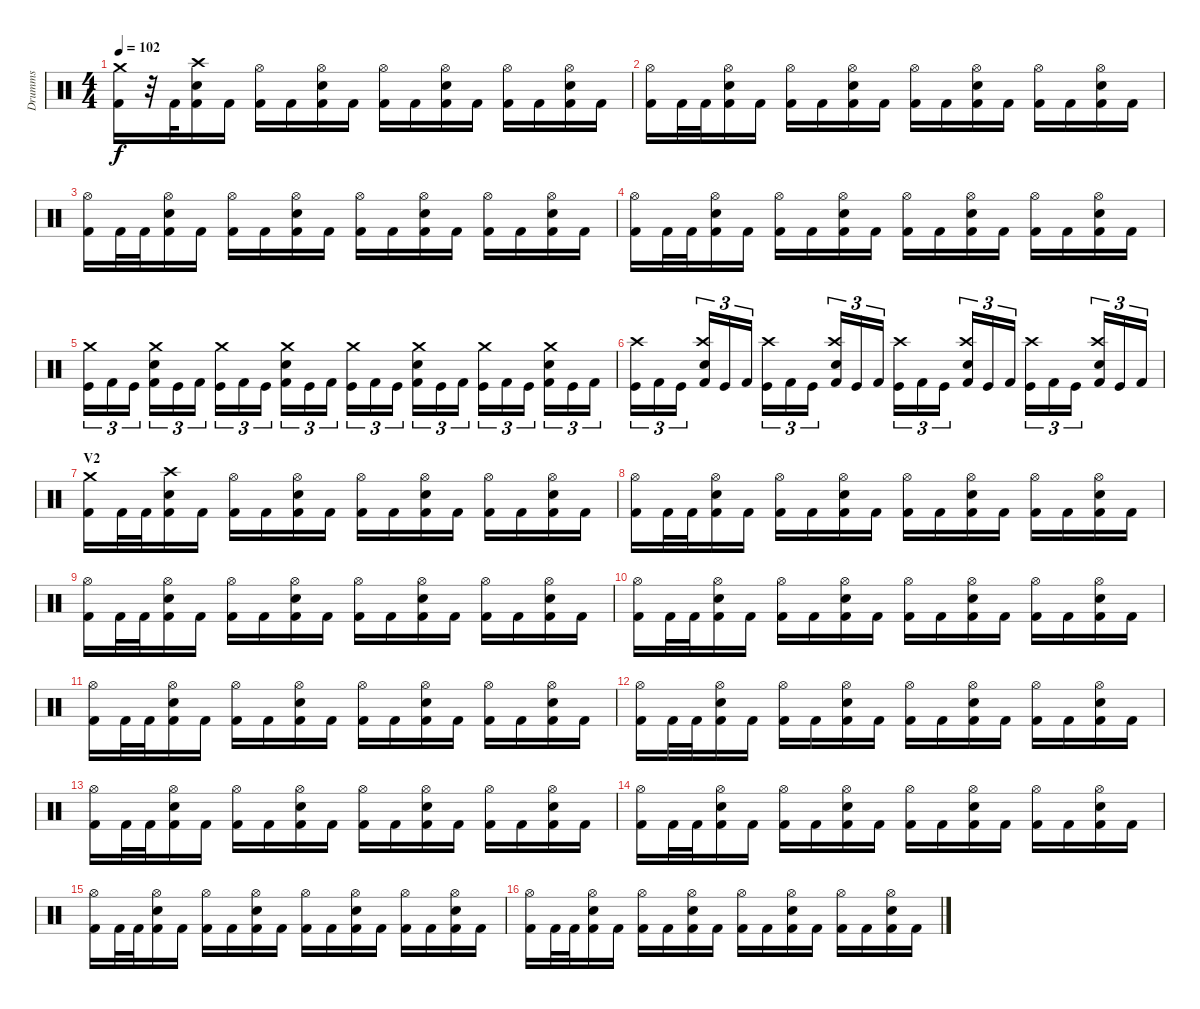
\track ("Drumms" "Drumms") {instrument percussion}
\staff {score}
\articulation defaults
\ts (4 4)
\tempo 102
\clef neutral
\ks c
("Crash medium (hit)" "Kick (hit) 2").16{dy f} r.32 "Kick (hit) 2".32 ("Crash high (hit)" "Snare (hit) 2" "Kick (hit) 2").16 "Kick (hit) 2".16 ("Hi-Hat (open)" "Kick (hit) 2").16 "Kick (hit) 2".16 ("Hi-Hat (open)" "Snare (hit) 2" "Kick (hit) 2").16 "Kick (hit) 2".16 ("Hi-Hat (open)" "Kick (hit) 2").16 "Kick (hit) 2".16 ("Hi-Hat (open)" "Snare (hit) 2" "Kick (hit) 2").16 "Kick (hit) 2".16 ("Hi-Hat (open)" "Kick (hit) 2").16 "Kick (hit) 2".16 ("Hi-Hat (open)" "Snare (hit) 2" "Kick (hit) 2").16 "Kick (hit) 2".16 |
("Hi-Hat (open)" "Kick (hit) 2").16 "Kick (hit) 2".32 "Kick (hit) 2".32 ("Hi-Hat (open)" "Snare (hit) 2" "Kick (hit) 2").16 "Kick (hit) 2".16 ("Hi-Hat (open)" "Kick (hit) 2").16 "Kick (hit) 2".16 ("Hi-Hat (open)" "Snare (hit) 2" "Kick (hit) 2").16 "Kick (hit) 2".16 ("Hi-Hat (open)" "Kick (hit) 2").16 "Kick (hit) 2".16 ("Hi-Hat (open)" "Snare (hit) 2" "Kick (hit) 2").16 "Kick (hit) 2".16 ("Hi-Hat (open)" "Kick (hit) 2").16 "Kick (hit) 2".16 ("Hi-Hat (open)" "Snare (hit) 2" "Kick (hit) 2").16 "Kick (hit) 2".16 |
("Hi-Hat (open)" "Kick (hit) 2").16 "Kick (hit) 2".32 "Kick (hit) 2".32 ("Hi-Hat (open)" "Snare (hit) 2" "Kick (hit) 2").16 "Kick (hit) 2".16 ("Hi-Hat (open)" "Kick (hit) 2").16 "Kick (hit) 2".16 ("Hi-Hat (open)" "Snare (hit) 2" "Kick (hit) 2").16 "Kick (hit) 2".16 ("Hi-Hat (open)" "Kick (hit) 2").16 "Kick (hit) 2".16 ("Hi-Hat (open)" "Snare (hit) 2" "Kick (hit) 2").16 "Kick (hit) 2".16 ("Hi-Hat (open)" "Kick (hit) 2").16 "Kick (hit) 2".16 ("Hi-Hat (open)" "Snare (hit) 2" "Kick (hit) 2").16 "Kick (hit) 2".16 |
("Hi-Hat (open)" "Kick (hit) 2").16 "Kick (hit) 2".32 "Kick (hit) 2".32 ("Hi-Hat (open)" "Snare (hit) 2" "Kick (hit) 2").16 "Kick (hit) 2".16 ("Hi-Hat (open)" "Kick (hit) 2").16 "Kick (hit) 2".16 ("Hi-Hat (open)" "Snare (hit) 2" "Kick (hit) 2").16 "Kick (hit) 2".16 ("Hi-Hat (open)" "Kick (hit) 2").16 "Kick (hit) 2".16 ("Hi-Hat (open)" "Snare (hit) 2" "Kick (hit) 2").16 "Kick (hit) 2".16 ("Hi-Hat (open)" "Kick (hit) 2").16 "Kick (hit) 2".16 ("Hi-Hat (open)" "Snare (hit) 2" "Kick (hit) 2").16 "Kick (hit) 2".16 |
("Crash medium (hit)" "Kick (hit)").16{tu (3 2)} "Kick (hit) 2".16{tu (3 2)} "Kick (hit)".16{tu (3 2)} ("Crash medium (hit)" "Snare (hit) 2" "Kick (hit) 2").16{tu (3 2)} "Kick (hit)".16{tu (3 2)} "Kick (hit) 2".16{tu (3 2)} ("Crash medium (hit)" "Kick (hit)").16{tu (3 2)} "Kick (hit) 2".16{tu (3 2)} "Kick (hit)".16{tu (3 2)} ("Crash medium (hit)" "Snare (hit) 2" "Kick (hit) 2").16{tu (3 2)} "Kick (hit)".16{tu (3 2)} "Kick (hit) 2".16{tu (3 2)} ("Crash medium (hit)" "Kick (hit)").16{tu (3 2)} "Kick (hit) 2".16{tu (3 2)} "Kick (hit)".16{tu (3 2)} ("Crash medium (hit)" "Snare (hit) 2" "Kick (hit) 2").16{tu (3 2)} "Kick (hit)".16{tu (3 2)} "Kick (hit) 2".16{tu (3 2)} ("Crash medium (hit)" "Kick (hit)").16{tu (3 2)} "Kick (hit) 2".16{tu (3 2)} "Kick (hit)".16{tu (3 2)} ("Crash medium (hit)" "Snare (hit) 2" "Kick (hit) 2").16{tu (3 2)} "Kick (hit)".16{tu (3 2)} "Kick (hit) 2".16{tu (3 2)} |
("Crash high (hit)" "Kick (hit)").16{tu (3 2)} "Kick (hit) 2".16{tu (3 2)} "Kick (hit)".16{tu (3 2)} ("Crash high (hit)" "Snare (hit) 2" "Kick (hit) 2").16{tu (3 2)} "Kick (hit)".16{tu (3 2)} "Kick (hit) 2".16{tu (3 2)} ("Crash high (hit)" "Kick (hit)").16{tu (3 2)} "Kick (hit) 2".16{tu (3 2)} "Kick (hit)".16{tu (3 2)} ("Crash high (hit)" "Snare (hit) 2" "Kick (hit) 2").16{tu (3 2)} "Kick (hit)".16{tu (3 2)} "Kick (hit) 2".16{tu (3 2)} ("Crash high (hit)" "Kick (hit)").16{tu (3 2)} "Kick (hit) 2".16{tu (3 2)} "Kick (hit)".16{tu (3 2)} ("Crash high (hit)" "Snare (hit) 2" "Kick (hit) 2").16{tu (3 2)} "Kick (hit)".16{tu (3 2)} "Kick (hit) 2".16{tu (3 2)} ("Crash high (hit)" "Kick (hit)").16{tu (3 2)} "Kick (hit) 2".16{tu (3 2)} "Kick (hit)".16{tu (3 2)} ("Crash high (hit)" "Snare (hit) 2" "Kick (hit) 2").16{tu (3 2)} "Kick (hit)".16{tu (3 2)} "Kick (hit) 2".16{tu (3 2)} |
\section ("" "V2")
("Crash medium (hit)" "Kick (hit) 2").16 "Kick (hit) 2".32 "Kick (hit) 2".32 ("Crash high (hit)" "Snare (hit) 2" "Kick (hit) 2").16 "Kick (hit) 2".16 ("Hi-Hat (open)" "Kick (hit) 2").16 "Kick (hit) 2".16 ("Hi-Hat (open)" "Snare (hit) 2" "Kick (hit) 2").16 "Kick (hit) 2".16 ("Hi-Hat (open)" "Kick (hit) 2").16 "Kick (hit) 2".16 ("Hi-Hat (open)" "Snare (hit) 2" "Kick (hit) 2").16 "Kick (hit) 2".16 ("Hi-Hat (open)" "Kick (hit) 2").16 "Kick (hit) 2".16 ("Hi-Hat (open)" "Snare (hit) 2" "Kick (hit) 2").16 "Kick (hit) 2".16 |
("Hi-Hat (open)" "Kick (hit) 2").16 "Kick (hit) 2".32 "Kick (hit) 2".32 ("Hi-Hat (open)" "Snare (hit) 2" "Kick (hit) 2").16 "Kick (hit) 2".16 ("Hi-Hat (open)" "Kick (hit) 2").16 "Kick (hit) 2".16 ("Hi-Hat (open)" "Snare (hit) 2" "Kick (hit) 2").16 "Kick (hit) 2".16 ("Hi-Hat (open)" "Kick (hit) 2").16 "Kick (hit) 2".16 ("Hi-Hat (open)" "Snare (hit) 2" "Kick (hit) 2").16 "Kick (hit) 2".16 ("Hi-Hat (open)" "Kick (hit) 2").16 "Kick (hit) 2".16 ("Hi-Hat (open)" "Snare (hit) 2" "Kick (hit) 2").16 "Kick (hit) 2".16 |
("Hi-Hat (open)" "Kick (hit) 2").16 "Kick (hit) 2".32 "Kick (hit) 2".32 ("Hi-Hat (open)" "Snare (hit) 2" "Kick (hit) 2").16 "Kick (hit) 2".16 ("Hi-Hat (open)" "Kick (hit) 2").16 "Kick (hit) 2".16 ("Hi-Hat (open)" "Snare (hit) 2" "Kick (hit) 2").16 "Kick (hit) 2".16 ("Hi-Hat (open)" "Kick (hit) 2").16 "Kick (hit) 2".16 ("Hi-Hat (open)" "Snare (hit) 2" "Kick (hit) 2").16 "Kick (hit) 2".16 ("Hi-Hat (open)" "Kick (hit) 2").16 "Kick (hit) 2".16 ("Hi-Hat (open)" "Snare (hit) 2" "Kick (hit) 2").16 "Kick (hit) 2".16 |
("Hi-Hat (open)" "Kick (hit) 2").16 "Kick (hit) 2".32 "Kick (hit) 2".32 ("Hi-Hat (open)" "Snare (hit) 2" "Kick (hit) 2").16 "Kick (hit) 2".16 ("Hi-Hat (open)" "Kick (hit) 2").16 "Kick (hit) 2".16 ("Hi-Hat (open)" "Snare (hit) 2" "Kick (hit) 2").16 "Kick (hit) 2".16 ("Hi-Hat (open)" "Kick (hit) 2").16 "Kick (hit) 2".16 ("Hi-Hat (open)" "Snare (hit) 2" "Kick (hit) 2").16 "Kick (hit) 2".16 ("Hi-Hat (open)" "Kick (hit) 2").16 "Kick (hit) 2".16 ("Hi-Hat (open)" "Snare (hit) 2" "Kick (hit) 2").16 "Kick (hit) 2".16 |
("Hi-Hat (open)" "Kick (hit) 2").16 "Kick (hit) 2".32 "Kick (hit) 2".32 ("Hi-Hat (open)" "Snare (hit) 2" "Kick (hit) 2").16 "Kick (hit) 2".16 ("Hi-Hat (open)" "Kick (hit) 2").16 "Kick (hit) 2".16 ("Hi-Hat (open)" "Snare (hit) 2" "Kick (hit) 2").16 "Kick (hit) 2".16 ("Hi-Hat (open)" "Kick (hit) 2").16 "Kick (hit) 2".16 ("Hi-Hat (open)" "Snare (hit) 2" "Kick (hit) 2").16 "Kick (hit) 2".16 ("Hi-Hat (open)" "Kick (hit) 2").16 "Kick (hit) 2".16 ("Hi-Hat (open)" "Snare (hit) 2" "Kick (hit) 2").16 "Kick (hit) 2".16 |
("Hi-Hat (open)" "Kick (hit) 2").16 "Kick (hit) 2".32 "Kick (hit) 2".32 ("Hi-Hat (open)" "Snare (hit) 2" "Kick (hit) 2").16 "Kick (hit) 2".16 ("Hi-Hat (open)" "Kick (hit) 2").16 "Kick (hit) 2".16 ("Hi-Hat (open)" "Snare (hit) 2" "Kick (hit) 2").16 "Kick (hit) 2".16 ("Hi-Hat (open)" "Kick (hit) 2").16 "Kick (hit) 2".16 ("Hi-Hat (open)" "Snare (hit) 2" "Kick (hit) 2").16 "Kick (hit) 2".16 ("Hi-Hat (open)" "Kick (hit) 2").16 "Kick (hit) 2".16 ("Hi-Hat (open)" "Snare (hit) 2" "Kick (hit) 2").16 "Kick (hit) 2".16 |
("Hi-Hat (open)" "Kick (hit) 2").16 "Kick (hit) 2".32 "Kick (hit) 2".32 ("Hi-Hat (open)" "Snare (hit) 2" "Kick (hit) 2").16 "Kick (hit) 2".16 ("Hi-Hat (open)" "Kick (hit) 2").16 "Kick (hit) 2".16 ("Hi-Hat (open)" "Snare (hit) 2" "Kick (hit) 2").16 "Kick (hit) 2".16 ("Hi-Hat (open)" "Kick (hit) 2").16 "Kick (hit) 2".16 ("Hi-Hat (open)" "Snare (hit) 2" "Kick (hit) 2").16 "Kick (hit) 2".16 ("Hi-Hat (open)" "Kick (hit) 2").16 "Kick (hit) 2".16 ("Hi-Hat (open)" "Snare (hit) 2" "Kick (hit) 2").16 "Kick (hit) 2".16 |
("Hi-Hat (open)" "Kick (hit) 2").16 "Kick (hit) 2".32 "Kick (hit) 2".32 ("Hi-Hat (open)" "Snare (hit) 2" "Kick (hit) 2").16 "Kick (hit) 2".16 ("Hi-Hat (open)" "Kick (hit) 2").16 "Kick (hit) 2".16 ("Hi-Hat (open)" "Snare (hit) 2" "Kick (hit) 2").16 "Kick (hit) 2".16 ("Hi-Hat (open)" "Kick (hit) 2").16 "Kick (hit) 2".16 ("Hi-Hat (open)" "Snare (hit) 2" "Kick (hit) 2").16 "Kick (hit) 2".16 ("Hi-Hat (open)" "Kick (hit) 2").16 "Kick (hit) 2".16 ("Hi-Hat (open)" "Snare (hit) 2" "Kick (hit) 2").16 "Kick (hit) 2".16 |
("Hi-Hat (open)" "Kick (hit) 2").16 "Kick (hit) 2".32 "Kick (hit) 2".32 ("Hi-Hat (open)" "Snare (hit) 2" "Kick (hit) 2").16 "Kick (hit) 2".16 ("Hi-Hat (open)" "Kick (hit) 2").16 "Kick (hit) 2".16 ("Hi-Hat (open)" "Snare (hit) 2" "Kick (hit) 2").16 "Kick (hit) 2".16 ("Hi-Hat (open)" "Kick (hit) 2").16 "Kick (hit) 2".16 ("Hi-Hat (open)" "Snare (hit) 2" "Kick (hit) 2").16 "Kick (hit) 2".16 ("Hi-Hat (open)" "Kick (hit) 2").16 "Kick (hit) 2".16 ("Hi-Hat (open)" "Snare (hit) 2" "Kick (hit) 2").16 "Kick (hit) 2".16 |
("Hi-Hat (open)" "Kick (hit) 2").16 "Kick (hit) 2".32 "Kick (hit) 2".32 ("Hi-Hat (open)" "Snare (hit) 2" "Kick (hit) 2").16 "Kick (hit) 2".16 ("Hi-Hat (open)" "Kick (hit) 2").16 "Kick (hit) 2".16 ("Hi-Hat (open)" "Snare (hit) 2" "Kick (hit) 2").16 "Kick (hit) 2".16 ("Hi-Hat (open)" "Kick (hit) 2").16 "Kick (hit) 2".16 ("Hi-Hat (open)" "Snare (hit) 2" "Kick (hit) 2").16 "Kick (hit) 2".16 ("Hi-Hat (open)" "Kick (hit) 2").16 "Kick (hit) 2".16 ("Hi-Hat (open)" "Snare (hit) 2" "Kick (hit) 2").16 "Kick (hit) 2".16
